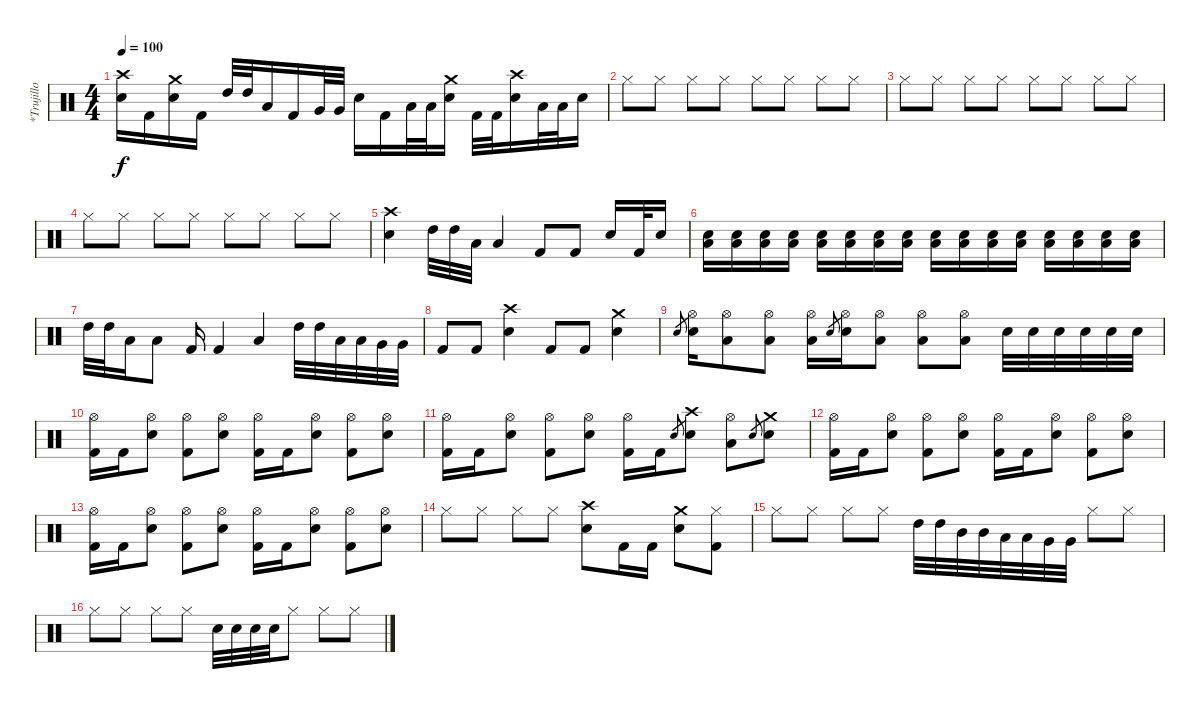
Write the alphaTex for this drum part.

\track ("*Trujillo" "*Trujillo") {instrument percussion}
\staff {score}
\articulation defaults
\ts (4 4)
\tempo 100
\clef neutral
\ks c
("Crash high (hit)" "Electric Snare (hit)").16{dy f} "Kick (hit) 2".16 ("Crash medium (hit)" "Electric Snare (hit)").16 "Kick (hit) 2".16 "High Tom (hit)".32 "High Tom (hit)".32 "Low Tom (hit)".16 "Kick (hit) 2".16 "Very Low Tom (hit)".32 "Very Low Tom (hit)".32 "Electric Snare (hit)".16 "Kick (hit) 2".16 "Low Floor Tom (hit)".32 "Low Floor Tom (hit)".32 ("Crash medium (hit)" "Electric Snare (hit)").16 "Kick (hit) 2".32 "Kick (hit) 2".32 ("Crash high (hit)" "Electric Snare (hit)").16 "Low Floor Tom (hit)".32 "Low Floor Tom (hit)".32 "Electric Snare (hit)".16 |
"Hi-Hat (closed)".8 "Hi-Hat (closed)".8 "Hi-Hat (closed)".8 "Hi-Hat (closed)".8 "Hi-Hat (closed)".8 "Hi-Hat (closed)".8 "Hi-Hat (closed)".8 "Hi-Hat (closed)".8 |
"Hi-Hat (closed)".8 "Hi-Hat (closed)".8 "Hi-Hat (closed)".8 "Hi-Hat (closed)".8 "Hi-Hat (closed)".8 "Hi-Hat (closed)".8 "Hi-Hat (closed)".8 "Hi-Hat (closed)".8 |
"Hi-Hat (closed)".8 "Hi-Hat (closed)".8 "Hi-Hat (closed)".8 "Hi-Hat (closed)".8 "Hi-Hat (closed)".8 "Hi-Hat (closed)".8 "Hi-Hat (closed)".8 "Hi-Hat (closed)".8 |
("Crash high (hit)" "Electric Snare (hit)").4 "High Tom (hit)".32 "High Tom (hit)".32 "Low Tom (hit)".32 "Low Tom (hit)".4 "Kick (hit) 2".8 "Kick (hit) 2".8 "Electric Snare (hit)".16 "Kick (hit) 2".32 "Electric Snare (hit)".16 |
("Low Floor Tom (hit)" "Electric Snare (hit)").16{volume 0} ("Low Floor Tom (hit)" "Electric Snare (hit)").16{volume 16} ("Low Floor Tom (hit)" "Electric Snare (hit)").16 ("Low Floor Tom (hit)" "Electric Snare (hit)").16 ("Low Floor Tom (hit)" "Electric Snare (hit)").16 ("Low Floor Tom (hit)" "Electric Snare (hit)").16 ("Low Floor Tom (hit)" "Electric Snare (hit)").16 ("Low Floor Tom (hit)" "Electric Snare (hit)").16 ("Low Floor Tom (hit)" "Electric Snare (hit)").16 ("Low Floor Tom (hit)" "Electric Snare (hit)").16 ("Low Floor Tom (hit)" "Electric Snare (hit)").16 ("Low Floor Tom (hit)" "Electric Snare (hit)").16 ("Low Floor Tom (hit)" "Electric Snare (hit)").16 ("Low Floor Tom (hit)" "Electric Snare (hit)").16 ("Low Floor Tom (hit)" "Electric Snare (hit)").16 ("Low Floor Tom (hit)" "Electric Snare (hit)").16 |
"High Tom (hit)".32 "High Tom (hit)".32 "Low Tom (hit)".16 "Low Tom (hit)".8 "Kick (hit) 2".16 "Kick (hit) 2".4 "Low Tom (hit)".4 "High Tom (hit)".32 "High Tom (hit)".32 "Low Tom (hit)".32 "Low Tom (hit)".32 "Very Low Tom (hit)".32 "Very Low Tom (hit)".32 |
"Kick (hit) 2".8 "Kick (hit) 2".8 ("Crash high (hit)" "Electric Snare (hit)").4 "Kick (hit) 2".8 "Kick (hit) 2".8 ("Crash medium (hit)" "Electric Snare (hit)").4 |
"Electric Snare (hit)".8{gr} ("Hi-Hat (open)"{x} "Electric Snare (hit)").16 ("Hi-Hat (open)"{x} "Low Tom (hit)").8 ("Hi-Hat (open)"{x} "Low Tom (hit)").8 ("Hi-Hat (open)"{x} "Low Tom (hit)").16 "Electric Snare (hit)".8{gr} ("Hi-Hat (open)"{x} "Electric Snare (hit)").16 ("Hi-Hat (open)"{x} "Low Tom (hit)").8 ("Hi-Hat (open)"{x} "Low Tom (hit)").8 ("Hi-Hat (open)"{x} "Low Tom (hit)").8 "Electric Snare (hit)".32 "Electric Snare (hit)".32 "Electric Snare (hit)".32 "Electric Snare (hit)".32 "Electric Snare (hit)".32 "Electric Snare (hit)".32 |
("Hi-Hat (open)" "Kick (hit) 2").16 "Kick (hit) 2".16 ("Hi-Hat (open)" "Electric Snare (hit)").8 ("Hi-Hat (open)" "Kick (hit) 2").8 ("Hi-Hat (open)" "Electric Snare (hit)").8 ("Hi-Hat (open)" "Kick (hit) 2").16 "Kick (hit) 2".16 ("Hi-Hat (open)" "Electric Snare (hit)").8 ("Hi-Hat (open)" "Kick (hit) 2").8 ("Hi-Hat (open)" "Electric Snare (hit)").8 |
("Hi-Hat (open)" "Kick (hit) 2").16 "Kick (hit) 2".16 ("Hi-Hat (open)" "Electric Snare (hit)").8 ("Hi-Hat (open)" "Kick (hit) 2").8 ("Hi-Hat (open)" "Electric Snare (hit)").8 ("Hi-Hat (open)" "Kick (hit) 2").16 "Kick (hit) 2".16 "Electric Snare (hit)".8{gr} ("Crash high (hit)" "Electric Snare (hit)").8 ("Hi-Hat (open)"{x} "Low Tom (hit)").8 "Electric Snare (hit)".8{gr} ("Crash medium (hit)" "Electric Snare (hit)").8 |
("Hi-Hat (open)" "Kick (hit) 2").16 "Kick (hit) 2".16 ("Hi-Hat (open)" "Electric Snare (hit)").8 ("Hi-Hat (open)" "Kick (hit) 2").8 ("Hi-Hat (open)" "Electric Snare (hit)").8 ("Hi-Hat (open)" "Kick (hit) 2").16 "Kick (hit) 2".16 ("Hi-Hat (open)" "Electric Snare (hit)").8 ("Hi-Hat (open)" "Kick (hit) 2").8 ("Hi-Hat (open)" "Electric Snare (hit)").8 |
("Hi-Hat (open)" "Kick (hit) 2").16 "Kick (hit) 2".16 ("Hi-Hat (open)" "Electric Snare (hit)").8 ("Hi-Hat (open)" "Kick (hit) 2").8 ("Hi-Hat (open)" "Electric Snare (hit)").8 ("Hi-Hat (open)" "Kick (hit) 2").16 "Kick (hit) 2".16 ("Hi-Hat (open)" "Electric Snare (hit)").8 ("Hi-Hat (open)" "Kick (hit) 2").8 ("Hi-Hat (open)" "Electric Snare (hit)").8 |
"Hi-Hat (closed)".8 "Hi-Hat (closed)".8 "Hi-Hat (closed)".8 "Hi-Hat (closed)".8 ("Crash high (hit)" "Electric Snare (hit)").8 "Kick (hit) 2".16 "Kick (hit) 2".16 ("Crash medium (hit)" "Electric Snare (hit)").8 ("Hi-Hat (closed)"{x} "Kick (hit) 2").8 |
"Hi-Hat (closed)".8 "Hi-Hat (closed)".8 "Hi-Hat (closed)".8 "Hi-Hat (closed)".8 "High Tom (hit)".32 "High Tom (hit)".32 "Mid Tom (hit)".32 "Mid Tom (hit)".32 "Low Tom (hit)".32 "Low Tom (hit)".32 "Very Low Tom (hit)".32 "Very Low Tom (hit)".32 "Hi-Hat (closed)".8 "Hi-Hat (closed)".8 |
"Hi-Hat (closed)".8 "Hi-Hat (closed)".8 "Hi-Hat (closed)".8 "Hi-Hat (closed)".8 "Electric Snare (hit)".32 "Electric Snare (hit)".32 "Electric Snare (hit)".32 "Electric Snare (hit)".32 "Hi-Hat (closed)".8 "Hi-Hat (closed)".8 "Hi-Hat (closed)".8
